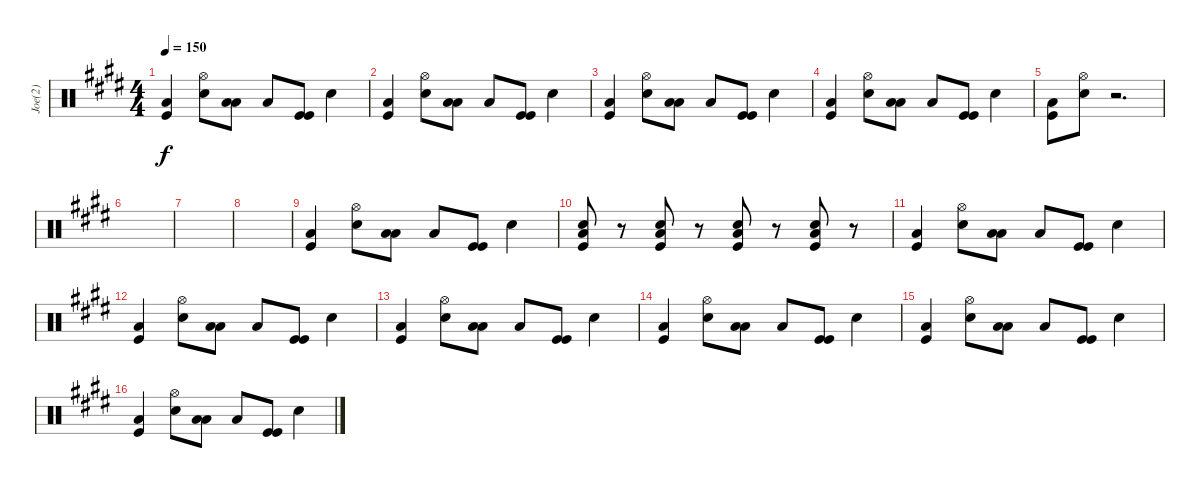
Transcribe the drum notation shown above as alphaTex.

\track ("Joe(2)" "Joe(2)") {instrument percussion}
\staff {score}
\articulation defaults
\ts (4 4)
\tempo 150
\clef neutral
\ks c#minor
("Kick (hit)" "Low Floor Tom (hit)").4{dy f} ("Snare (hit) 2" "Hi-Hat (open)").8 ("Low Tom (hit)" "Low Floor Tom (hit)").8 "Low Floor Tom (hit)".8 ("Kick (hit)" "Kick (hit)").8 "Snare (hit) 2".4 |
("Kick (hit)" "Low Floor Tom (hit)").4 ("Snare (hit) 2" "Hi-Hat (open)").8 ("Low Tom (hit)" "Low Floor Tom (hit)").8 "Low Floor Tom (hit)".8 ("Kick (hit)" "Kick (hit)").8 "Snare (hit) 2".4 |
("Kick (hit)" "Low Floor Tom (hit)").4 ("Snare (hit) 2" "Hi-Hat (open)").8 ("Low Tom (hit)" "Low Floor Tom (hit)").8 "Low Floor Tom (hit)".8 ("Kick (hit)" "Kick (hit)").8 "Snare (hit) 2".4 |
("Kick (hit)" "Low Floor Tom (hit)").4 ("Snare (hit) 2" "Hi-Hat (open)").8 ("Low Tom (hit)" "Low Floor Tom (hit)").8 "Low Floor Tom (hit)".8 ("Kick (hit)" "Kick (hit)").8 "Snare (hit) 2".4 |
("Kick (hit)" "Low Floor Tom (hit)").8 ("Snare (hit) 2" "Hi-Hat (open)").8 r.2{d} |
|
|
|
("Kick (hit)" "Low Floor Tom (hit)").4 ("Snare (hit) 2" "Hi-Hat (open)").8 ("Low Tom (hit)" "Low Floor Tom (hit)").8 "Low Floor Tom (hit)".8 ("Kick (hit)" "Kick (hit)").8 "Snare (hit) 2".4 |
("Snare (hit) 2" "Kick (hit)" "Low Floor Tom (hit)").8 r.8 ("Snare (hit) 2" "Kick (hit)" "Low Floor Tom (hit)").8 r.8 ("Snare (hit) 2" "Kick (hit)" "Low Floor Tom (hit)").8 r.8 ("Snare (hit) 2" "Kick (hit)" "Low Floor Tom (hit)").8 r.8 |
("Kick (hit)" "Low Floor Tom (hit)").4 ("Snare (hit) 2" "Hi-Hat (open)").8 ("Low Tom (hit)" "Low Floor Tom (hit)").8 "Low Floor Tom (hit)".8 ("Kick (hit)" "Kick (hit)").8 "Snare (hit) 2".4 |
("Kick (hit)" "Low Floor Tom (hit)").4 ("Snare (hit) 2" "Hi-Hat (open)").8 ("Low Tom (hit)" "Low Floor Tom (hit)").8 "Low Floor Tom (hit)".8 ("Kick (hit)" "Kick (hit)").8 "Snare (hit) 2".4 |
("Kick (hit)" "Low Floor Tom (hit)").4 ("Snare (hit) 2" "Hi-Hat (open)").8 ("Low Tom (hit)" "Low Floor Tom (hit)").8 "Low Floor Tom (hit)".8 ("Kick (hit)" "Kick (hit)").8 "Snare (hit) 2".4 |
("Kick (hit)" "Low Floor Tom (hit)").4 ("Snare (hit) 2" "Hi-Hat (open)").8 ("Low Tom (hit)" "Low Floor Tom (hit)").8 "Low Floor Tom (hit)".8 ("Kick (hit)" "Kick (hit)").8 "Snare (hit) 2".4 |
("Kick (hit)" "Low Floor Tom (hit)").4 ("Snare (hit) 2" "Hi-Hat (open)").8 ("Low Tom (hit)" "Low Floor Tom (hit)").8 "Low Floor Tom (hit)".8 ("Kick (hit)" "Kick (hit)").8 "Snare (hit) 2".4 |
("Kick (hit)" "Low Floor Tom (hit)").4 ("Snare (hit) 2" "Hi-Hat (open)").8 ("Low Tom (hit)" "Low Floor Tom (hit)").8 "Low Floor Tom (hit)".8 ("Kick (hit)" "Kick (hit)").8 "Snare (hit) 2".4
